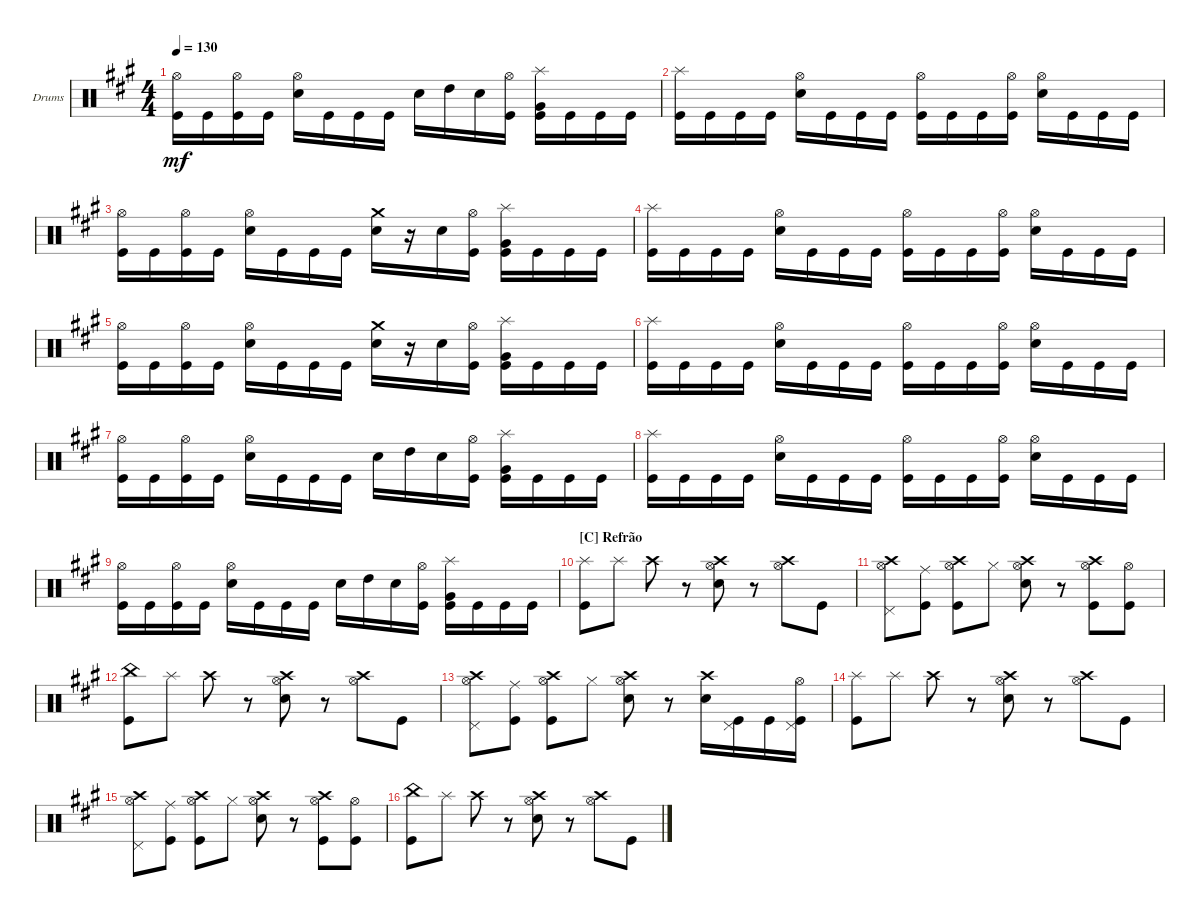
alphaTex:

\defaultSystemsLayout 4
\bracketExtendMode groupsimilarinstruments
\firstSystemTrackNameOrientation horizontal
\otherSystemsTrackNameOrientation horizontal
\track ("Bateria" "Drums") {instrument percussion}
\staff {score}
\articulation defaults
\ts (4 4)
\tempo 130
\clef neutral
\ks a
("Kick (hit)" "Hi-Hat (open)").16{dy mf} "Kick (hit)".16 ("Kick (hit)" "Hi-Hat (open)").16 "Kick (hit)".16 ("Snare (hit) 2" "Hi-Hat (open)").16 "Kick (hit)".16 "Kick (hit)".16 "Kick (hit)".16 "Snare (hit) 2".16 "High Tom (hit)".16 "Snare (hit) 2".16 ("Kick (hit)" "Hi-Hat (open)").16 ("Very Low Tom (hit)" "Splash (hit)" "Kick (hit)").16 "Kick (hit)".16 "Kick (hit)".16 "Kick (hit)".16 |
("Kick (hit)" "Splash (hit)").16 "Kick (hit)".16 "Kick (hit)".16 "Kick (hit)".16 ("Snare (hit) 2" "Hi-Hat (open)").16 "Kick (hit)".16 "Kick (hit)".16 "Kick (hit)".16 ("Kick (hit)" "Hi-Hat (open)").16 "Kick (hit)".16 "Kick (hit)".16 ("Kick (hit)" "Hi-Hat (open)").16 ("Snare (hit) 2" "Hi-Hat (open)").16 "Kick (hit)".16 "Kick (hit)".16 "Kick (hit)".16 |
("Kick (hit)" "Hi-Hat (open)").16 "Kick (hit)".16 ("Kick (hit)" "Hi-Hat (open)").16 "Kick (hit)".16 ("Snare (hit) 2" "Hi-Hat (open)").16 "Kick (hit)".16 "Kick (hit)".16 "Kick (hit)".16 ("Snare (hit) 2" "Crash medium (hit)").16 r.16 "Snare (hit) 2".16 ("Kick (hit)" "Hi-Hat (open)").16 ("Very Low Tom (hit)" "Splash (hit)" "Kick (hit)").16 "Kick (hit)".16 "Kick (hit)".16 "Kick (hit)".16 |
("Kick (hit)" "Splash (hit)").16 "Kick (hit)".16 "Kick (hit)".16 "Kick (hit)".16 ("Snare (hit) 2" "Hi-Hat (open)").16 "Kick (hit)".16 "Kick (hit)".16 "Kick (hit)".16 ("Kick (hit)" "Hi-Hat (open)").16 "Kick (hit)".16 "Kick (hit)".16 ("Kick (hit)" "Hi-Hat (open)").16 ("Snare (hit) 2" "Hi-Hat (open)").16 "Kick (hit)".16 "Kick (hit)".16 "Kick (hit)".16 |
("Kick (hit)" "Hi-Hat (open)").16 "Kick (hit)".16 ("Kick (hit)" "Hi-Hat (open)").16 "Kick (hit)".16 ("Snare (hit) 2" "Hi-Hat (open)").16 "Kick (hit)".16 "Kick (hit)".16 "Kick (hit)".16 ("Snare (hit) 2" "Crash medium (hit)").16 r.16 "Snare (hit) 2".16 ("Kick (hit)" "Hi-Hat (open)").16 ("Very Low Tom (hit)" "Splash (hit)" "Kick (hit)").16 "Kick (hit)".16 "Kick (hit)".16 "Kick (hit)".16 |
("Kick (hit)" "Splash (hit)").16 "Kick (hit)".16 "Kick (hit)".16 "Kick (hit)".16 ("Snare (hit) 2" "Hi-Hat (open)").16 "Kick (hit)".16 "Kick (hit)".16 "Kick (hit)".16 ("Kick (hit)" "Hi-Hat (open)").16 "Kick (hit)".16 "Kick (hit)".16 ("Kick (hit)" "Hi-Hat (open)").16 ("Snare (hit) 2" "Hi-Hat (open)").16 "Kick (hit)".16 "Kick (hit)".16 "Kick (hit)".16 |
("Kick (hit)" "Hi-Hat (open)").16 "Kick (hit)".16 ("Kick (hit)" "Hi-Hat (open)").16 "Kick (hit)".16 ("Snare (hit) 2" "Hi-Hat (open)").16 "Kick (hit)".16 "Kick (hit)".16 "Kick (hit)".16 "Snare (hit) 2".16 "High Tom (hit)".16 "Snare (hit) 2".16 ("Kick (hit)" "Hi-Hat (open)").16 ("Very Low Tom (hit)" "Splash (hit)" "Kick (hit)").16 "Kick (hit)".16 "Kick (hit)".16 "Kick (hit)".16 |
("Kick (hit)" "Splash (hit)").16 "Kick (hit)".16 "Kick (hit)".16 "Kick (hit)".16 ("Snare (hit) 2" "Hi-Hat (open)").16 "Kick (hit)".16 "Kick (hit)".16 "Kick (hit)".16 ("Kick (hit)" "Hi-Hat (open)").16 "Kick (hit)".16 "Kick (hit)".16 ("Kick (hit)" "Hi-Hat (open)").16 ("Snare (hit) 2" "Hi-Hat (open)").16 "Kick (hit)".16 "Kick (hit)".16 "Kick (hit)".16 |
("Kick (hit)" "Hi-Hat (open)").16 "Kick (hit)".16 ("Kick (hit)" "Hi-Hat (open)").16 "Kick (hit)".16 ("Snare (hit) 2" "Hi-Hat (open)").16 "Kick (hit)".16 "Kick (hit)".16 "Kick (hit)".16 "Snare (hit) 2".16 "High Tom (hit)".16 "Snare (hit) 2".16 ("Kick (hit)" "Hi-Hat (open)").16 ("Very Low Tom (hit)" "Splash (hit)" "Kick (hit)").16 "Kick (hit)".16 "Kick (hit)".16 "Kick (hit)".16 |
\section ("C" "Refrão")
("Kick (hit)" "Splash (hit)").8 "Splash (hit)".8 "Crash high (hit)".8 r.8 ("Snare (hit) 2" "Hi-Hat (open)" "Crash high (hit)").8 r.8 ("Hi-Hat (open)" "Crash high (hit)").8 "Kick (hit)".8 |
("Pedal Hi-Hat (hit)" "Hi-Hat (open)" "Crash high (hit)").8 ("Kick (hit)" "Ride (middle)").8 ("Kick (hit)" "Hi-Hat (open)" "Crash high (hit)").8 "Hi-Hat (closed)".8 ("Snare (hit) 2" "Hi-Hat (open)" "Crash high (hit)").8 r.8 ("Kick (hit)" "Hi-Hat (open)" "Crash high (hit)").8 ("Kick (hit)" "Hi-Hat (open)").8 |
("Kick (hit)" "China (hit)").8 "Splash (hit)".8 "Crash high (hit)".8 r.8 ("Snare (hit) 2" "Hi-Hat (open)" "Crash high (hit)").8 r.8 ("Hi-Hat (open)" "Crash high (hit)").8 "Kick (hit)".8 |
("Pedal Hi-Hat (hit)" "Hi-Hat (open)" "Crash high (hit)").8 ("Kick (hit)" "Ride (middle)").8 ("Kick (hit)" "Hi-Hat (open)" "Crash high (hit)").8 "Hi-Hat (closed)".8 ("Snare (hit) 2" "Hi-Hat (open)" "Crash high (hit)").8 r.8 ("Crash high (hit)" "Snare (hit) 2").16 ("Kick (hit)" "Pedal Hi-Hat (hit)").16 "Kick (hit)".16 ("Hi-Hat (open)" "Kick (hit)" "Pedal Hi-Hat (hit)").16 |
("Kick (hit)" "Splash (hit)").8 "Splash (hit)".8 "Crash high (hit)".8 r.8 ("Snare (hit) 2" "Hi-Hat (open)" "Crash high (hit)").8 r.8 ("Hi-Hat (open)" "Crash high (hit)").8 "Kick (hit)".8 |
("Pedal Hi-Hat (hit)" "Hi-Hat (open)" "Crash high (hit)").8 ("Kick (hit)" "Ride (middle)").8 ("Kick (hit)" "Hi-Hat (open)" "Crash high (hit)").8 "Hi-Hat (closed)".8 ("Snare (hit) 2" "Hi-Hat (open)" "Crash high (hit)").8 r.8 ("Kick (hit)" "Hi-Hat (open)" "Crash high (hit)").8 ("Kick (hit)" "Hi-Hat (open)").8 |
("Kick (hit)" "China (hit)").8 "Splash (hit)".8 "Crash high (hit)".8 r.8 ("Snare (hit) 2" "Hi-Hat (open)" "Crash high (hit)").8 r.8 ("Hi-Hat (open)" "Crash high (hit)").8 "Kick (hit)".8
